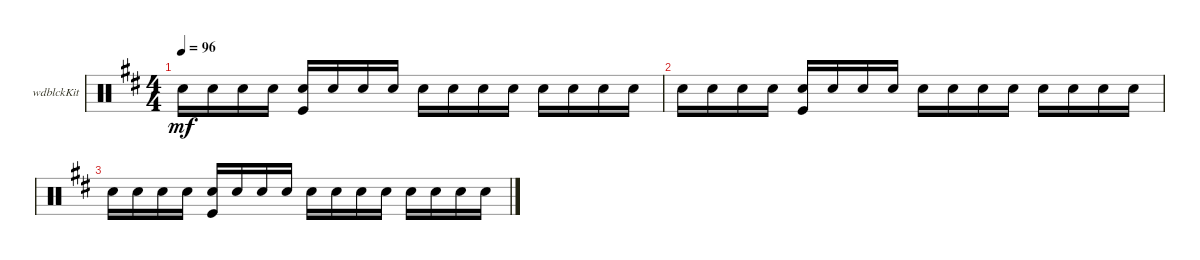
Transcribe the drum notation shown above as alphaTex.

\defaultSystemsLayout 4
\bracketExtendMode groupsimilarinstruments
\firstSystemTrackNameOrientation horizontal
\otherSystemsTrackNameOrientation horizontal
\track ("Woodblock" "wdblckKit") {instrument percussion}
\staff {score}
\articulation defaults
\ts (4 4)
\tempo 96
\clef neutral
\ks d "Snare (hit) 2".16{dy mf} "Snare (hit) 2".16 "Snare (hit) 2".16 "Snare (hit) 2".16
("Snare (hit) 2" "Kick (hit)").16 "Snare (hit) 2".16 "Snare (hit) 2".16 "Snare (hit) 2".16 "Snare (hit) 2".16 "Snare (hit) 2".16 "Snare (hit) 2".16 "Snare (hit) 2".16 "Snare (hit) 2".16 "Snare (hit) 2".16 "Snare (hit) 2".16 "Snare (hit) 2".16 |
"Snare (hit) 2".16 "Snare (hit) 2".16 "Snare (hit) 2".16 "Snare (hit) 2".16 ("Snare (hit) 2" "Kick (hit)").16 "Snare (hit) 2".16 "Snare (hit) 2".16 "Snare (hit) 2".16 "Snare (hit) 2".16 "Snare (hit) 2".16 "Snare (hit) 2".16 "Snare (hit) 2".16 "Snare (hit) 2".16 "Snare (hit) 2".16 "Snare (hit) 2".16 "Snare (hit) 2".16 |
"Snare (hit) 2".16 "Snare (hit) 2".16 "Snare (hit) 2".16 "Snare (hit) 2".16 ("Snare (hit) 2" "Kick (hit)").16 "Snare (hit) 2".16 "Snare (hit) 2".16 "Snare (hit) 2".16 "Snare (hit) 2".16 "Snare (hit) 2".16 "Snare (hit) 2".16 "Snare (hit) 2".16 "Snare (hit) 2".16 "Snare (hit) 2".16 "Snare (hit) 2".16 "Snare (hit) 2".16
